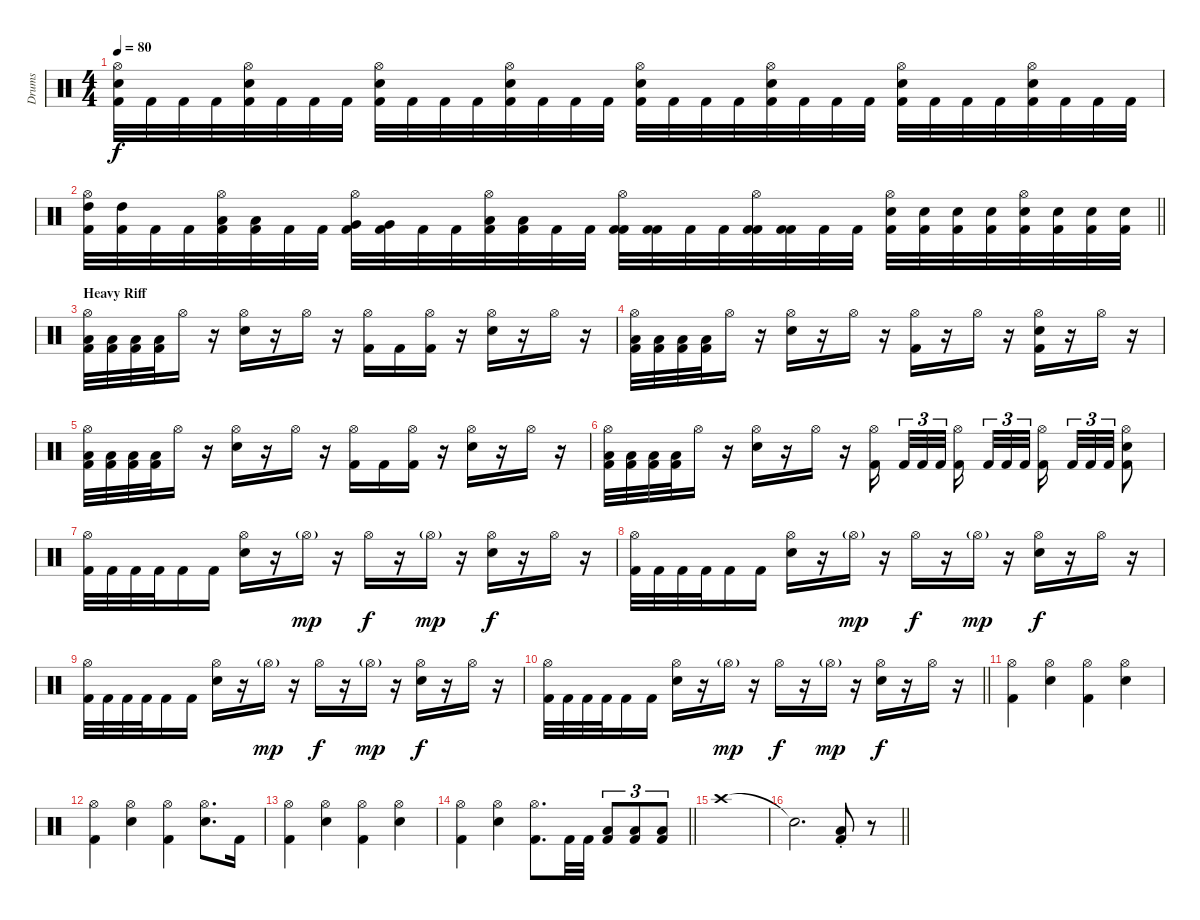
\track ("Drums" "Drums") {instrument percussion}
\staff {score}
\articulation defaults
\ts (4 4)
\tempo 80
\clef neutral
\ks c
("Hi-Hat (open)" "Electric Snare (hit)" "Kick (hit) 2").32{dy f} "Kick (hit) 2".32 "Kick (hit) 2".32 "Kick (hit) 2".32 ("Hi-Hat (open)" "Electric Snare (hit)" "Kick (hit) 2").32 "Kick (hit) 2".32 "Kick (hit) 2".32 "Kick (hit) 2".32 ("Hi-Hat (open)" "Electric Snare (hit)" "Kick (hit) 2").32 "Kick (hit) 2".32 "Kick (hit) 2".32 "Kick (hit) 2".32 ("Hi-Hat (open)" "Electric Snare (hit)" "Kick (hit) 2").32 "Kick (hit) 2".32 "Kick (hit) 2".32 "Kick (hit) 2".32 ("Hi-Hat (open)" "Electric Snare (hit)" "Kick (hit) 2").32 "Kick (hit) 2".32 "Kick (hit) 2".32 "Kick (hit) 2".32 ("Hi-Hat (open)" "Electric Snare (hit)" "Kick (hit) 2").32 "Kick (hit) 2".32 "Kick (hit) 2".32 "Kick (hit) 2".32 ("Hi-Hat (open)" "Electric Snare (hit)" "Kick (hit) 2").32 "Kick (hit) 2".32 "Kick (hit) 2".32 "Kick (hit) 2".32 ("Hi-Hat (open)" "Electric Snare (hit)" "Kick (hit) 2").32 "Kick (hit) 2".32 "Kick (hit) 2".32 "Kick (hit) 2".32 |
\barLineRight lightlight
("Hi-Hat (open)" "High Tom (hit)" "Kick (hit) 2").32 ("High Tom (hit)" "Kick (hit) 2").32 "Kick (hit) 2".32 "Kick (hit) 2".32 ("Hi-Hat (open)" "Low Tom (hit)" "Kick (hit) 2").32 ("Low Tom (hit)" "Kick (hit) 2").32 "Kick (hit) 2".32 "Kick (hit) 2".32 ("Hi-Hat (open)" "Very Low Tom (hit)" "Kick (hit) 2").32 ("Very Low Tom (hit)" "Kick (hit) 2").32 "Kick (hit) 2".32 "Kick (hit) 2".32 ("Hi-Hat (open)" "Low Floor Tom (hit)" "Kick (hit) 2").32 ("Low Floor Tom (hit)" "Kick (hit) 2").32 "Kick (hit) 2".32 "Kick (hit) 2".32 ("Hi-Hat (open)" "Kick (hit) 2" "Kick (hit) 2").32 ("Kick (hit) 2" "Kick (hit) 2").32 "Kick (hit) 2".32 "Kick (hit) 2".32 ("Hi-Hat (open)" "Kick (hit) 2" "Kick (hit) 2").32 ("Kick (hit) 2" "Kick (hit) 2").32 "Kick (hit) 2".32 "Kick (hit) 2".32 ("Hi-Hat (open)" "Electric Snare (hit)" "Kick (hit) 2").32 ("Electric Snare (hit)" "Kick (hit) 2").32 ("Electric Snare (hit)" "Kick (hit) 2").32 ("Electric Snare (hit)" "Kick (hit) 2").32 ("Hi-Hat (open)" "Electric Snare (hit)" "Kick (hit) 2").32 ("Electric Snare (hit)" "Kick (hit) 2").32 ("Electric Snare (hit)" "Kick (hit) 2").32 ("Electric Snare (hit)" "Kick (hit) 2").32 |
\section ("" "Heavy Riff")
("Hi-Hat (open)" "Low Floor Tom (hit)" "Kick (hit) 2").32 ("Low Floor Tom (hit)" "Kick (hit) 2").32 ("Low Floor Tom (hit)" "Kick (hit) 2").32 ("Low Floor Tom (hit)" "Kick (hit) 2").32 "Hi-Hat (open)".16 r.16 ("Hi-Hat (open)" "Electric Snare (hit)").16 r.16 "Hi-Hat (open)".16 r.16 ("Hi-Hat (open)" "Kick (hit) 2").16 "Kick (hit) 2".16 ("Hi-Hat (open)" "Kick (hit) 2").16 r.16 ("Hi-Hat (open)" "Electric Snare (hit)").16 r.16 "Hi-Hat (open)".16 r.16 |
("Hi-Hat (open)" "Low Floor Tom (hit)" "Kick (hit) 2").32 ("Low Floor Tom (hit)" "Kick (hit) 2").32 ("Low Floor Tom (hit)" "Kick (hit) 2").32 ("Low Floor Tom (hit)" "Kick (hit) 2").32 "Hi-Hat (open)".16 r.16 ("Hi-Hat (open)" "Electric Snare (hit)").16 r.16 "Hi-Hat (open)".16 r.16 ("Hi-Hat (open)" "Kick (hit) 2").16 r.16 "Hi-Hat (open)".16 r.16 ("Hi-Hat (open)" "Electric Snare (hit)" "Kick (hit) 2").16 r.16 "Hi-Hat (open)".16 r.16 |
("Hi-Hat (open)" "Low Floor Tom (hit)" "Kick (hit) 2").32 ("Low Floor Tom (hit)" "Kick (hit) 2").32 ("Low Floor Tom (hit)" "Kick (hit) 2").32 ("Low Floor Tom (hit)" "Kick (hit) 2").32 "Hi-Hat (open)".16 r.16 ("Hi-Hat (open)" "Electric Snare (hit)").16 r.16 "Hi-Hat (open)".16 r.16 ("Hi-Hat (open)" "Kick (hit) 2").16 "Kick (hit) 2".16 ("Hi-Hat (open)" "Kick (hit) 2").16 r.16 ("Hi-Hat (open)" "Electric Snare (hit)").16 r.16 "Hi-Hat (open)".16 r.16 |
("Hi-Hat (open)" "Low Floor Tom (hit)" "Kick (hit) 2").32 ("Low Floor Tom (hit)" "Kick (hit) 2").32 ("Low Floor Tom (hit)" "Kick (hit) 2").32 ("Low Floor Tom (hit)" "Kick (hit) 2").32 "Hi-Hat (open)".16 r.16 ("Hi-Hat (open)" "Electric Snare (hit)").16 r.16 "Hi-Hat (open)".16 r.16 ("Hi-Hat (open)" "Kick (hit) 2").16{beam splitsecondary} "Kick (hit) 2".32{tu (3 2)} "Kick (hit) 2".32{tu (3 2)} "Kick (hit) 2".32{tu (3 2) beam splitsecondary} ("Hi-Hat (open)" "Kick (hit) 2").16{beam splitsecondary} "Kick (hit) 2".32{tu (3 2)} "Kick (hit) 2".32{tu (3 2)} "Kick (hit) 2".32{tu (3 2)} ("Hi-Hat (open)" "Kick (hit) 2").16{beam splitsecondary} "Kick (hit) 2".32{tu (3 2)} "Kick (hit) 2".32{tu (3 2)} "Kick (hit) 2".32{tu (3 2)} ("Hi-Hat (open)" "Electric Snare (hit)" "Kick (hit) 2").8 |
("Hi-Hat (open)" "Kick (hit) 2").32 "Kick (hit) 2".32 "Kick (hit) 2".32 "Kick (hit) 2".32 "Kick (hit) 2".16 "Kick (hit) 2".16 ("Hi-Hat (open)" "Electric Snare (hit)").16 r.16 "Hi-Hat (open)"{g}.16{dy mp} r.16 "Hi-Hat (open)".16{dy f} r.16 "Hi-Hat (open)"{g}.16{dy mp} r.16 ("Hi-Hat (open)" "Electric Snare (hit)").16{dy f} r.16 "Hi-Hat (open)".16 r.16 |
("Hi-Hat (open)" "Kick (hit) 2").32 "Kick (hit) 2".32 "Kick (hit) 2".32 "Kick (hit) 2".32 "Kick (hit) 2".16 "Kick (hit) 2".16 ("Hi-Hat (open)" "Electric Snare (hit)").16 r.16 "Hi-Hat (open)"{g}.16{dy mp} r.16 "Hi-Hat (open)".16{dy f} r.16 "Hi-Hat (open)"{g}.16{dy mp} r.16 ("Hi-Hat (open)" "Electric Snare (hit)").16{dy f} r.16 "Hi-Hat (open)".16 r.16 |
("Hi-Hat (open)" "Kick (hit) 2").32 "Kick (hit) 2".32 "Kick (hit) 2".32 "Kick (hit) 2".32 "Kick (hit) 2".16 "Kick (hit) 2".16 ("Hi-Hat (open)" "Electric Snare (hit)").16 r.16 "Hi-Hat (open)"{g}.16{dy mp} r.16 "Hi-Hat (open)".16{dy f} r.16 "Hi-Hat (open)"{g}.16{dy mp} r.16 ("Hi-Hat (open)" "Electric Snare (hit)").16{dy f} r.16 "Hi-Hat (open)".16 r.16 |
\barLineRight lightlight
("Hi-Hat (open)" "Kick (hit) 2").32 "Kick (hit) 2".32 "Kick (hit) 2".32 "Kick (hit) 2".32 "Kick (hit) 2".16 "Kick (hit) 2".16 ("Hi-Hat (open)" "Electric Snare (hit)").16 r.16 "Hi-Hat (open)"{g}.16{dy mp} r.16 "Hi-Hat (open)".16{dy f} r.16 "Hi-Hat (open)"{g}.16{dy mp} r.16 ("Hi-Hat (open)" "Electric Snare (hit)").16{dy f} r.16 "Hi-Hat (open)".16 r.16 |
("Hi-Hat (open)" "Kick (hit) 2").4 ("Hi-Hat (open)" "Electric Snare (hit)").4 ("Hi-Hat (open)" "Kick (hit) 2").4 ("Hi-Hat (open)" "Electric Snare (hit)").4 |
("Hi-Hat (open)" "Kick (hit) 2").4 ("Hi-Hat (open)" "Electric Snare (hit)").4 ("Hi-Hat (open)" "Kick (hit) 2").4 ("Hi-Hat (open)" "Electric Snare (hit)").8{d} "Kick (hit) 2".16 |
("Hi-Hat (open)" "Kick (hit) 2").4 ("Hi-Hat (open)" "Electric Snare (hit)").4 ("Hi-Hat (open)" "Kick (hit) 2").4 ("Hi-Hat (open)" "Electric Snare (hit)").4 |
\barLineRight lightlight
("Hi-Hat (open)" "Kick (hit) 2").4 ("Hi-Hat (open)" "Electric Snare (hit)").4 ("Hi-Hat (open)" "Kick (hit) 2").8{d} "Kick (hit) 2".32 "Kick (hit) 2".32 ("Low Floor Tom (hit)" "Kick (hit) 2").8{tu (3 2)} ("Low Floor Tom (hit)" "Kick (hit) 2").8{tu (3 2)} ("Low Floor Tom (hit)" "Kick (hit) 2").8{tu (3 2)} |
"Crash high (hit)".1 |
\barLineRight lightlight "Snare (hit)"{t}.2{d}
("Low Floor Tom (hit)" "Kick (hit) 2"{st}).8 r.8
